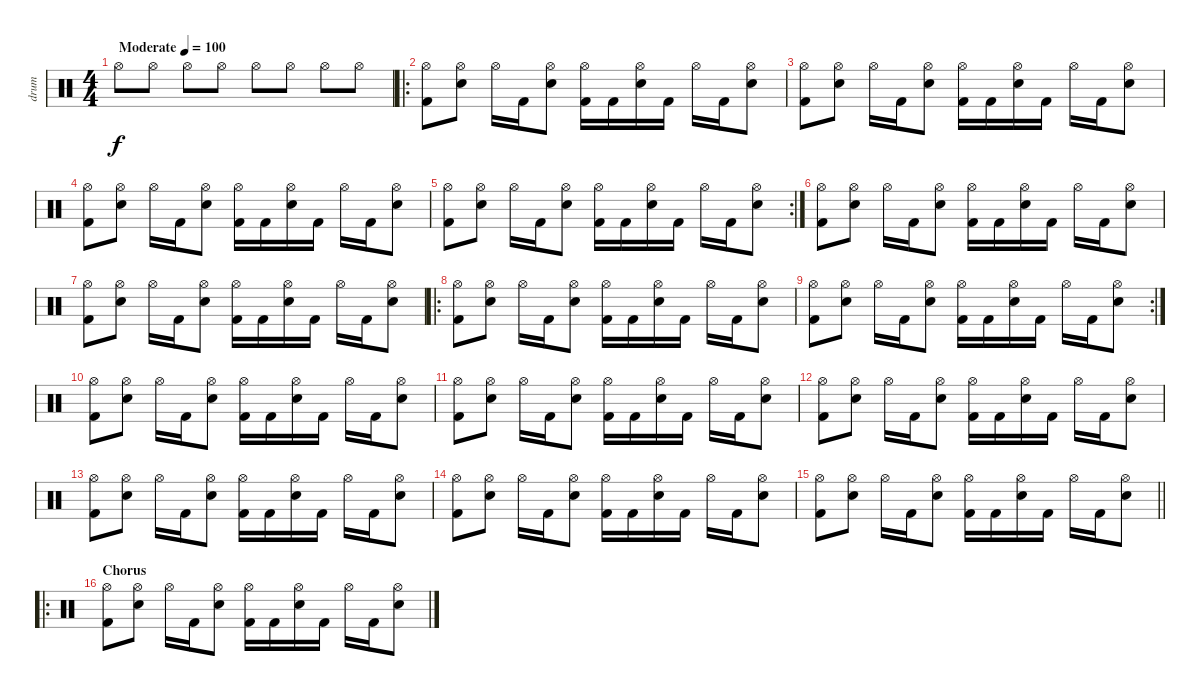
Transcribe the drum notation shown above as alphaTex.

\track ("drum" "drum") {instrument percussion}
\staff {score}
\articulation defaults
\ts (4 4)
\tempo (100 "Moderate")
\clef neutral
\ks c "Hi-Hat (open)".8{dy f} "Hi-Hat (open)".8 "Hi-Hat (open)".8 "Hi-Hat (open)".8 "Hi-Hat (open)".8 "Hi-Hat (open)".8 "Hi-Hat (open)".8 "Hi-Hat (open)".8
|
\ro
("Hi-Hat (open)" "Kick (hit) 2").8 ("Hi-Hat (open)" "Electric Snare (hit)").8 "Hi-Hat (open)".16 "Kick (hit) 2".16 ("Hi-Hat (open)" "Electric Snare (hit)").8 ("Hi-Hat (open)" "Kick (hit) 2").16 "Kick (hit) 2".16 ("Hi-Hat (open)" "Electric Snare (hit)").16 "Kick (hit) 2".16 "Hi-Hat (open)".16 "Kick (hit) 2".16 ("Hi-Hat (open)" "Electric Snare (hit)").8 |
("Hi-Hat (open)" "Kick (hit) 2").8 ("Hi-Hat (open)" "Electric Snare (hit)").8 "Hi-Hat (open)".16 "Kick (hit) 2".16 ("Hi-Hat (open)" "Electric Snare (hit)").8 ("Hi-Hat (open)" "Kick (hit) 2").16 "Kick (hit) 2".16 ("Hi-Hat (open)" "Electric Snare (hit)").16 "Kick (hit) 2".16 "Hi-Hat (open)".16 "Kick (hit) 2".16 ("Hi-Hat (open)" "Electric Snare (hit)").8 |
("Hi-Hat (open)" "Kick (hit) 2").8 ("Hi-Hat (open)" "Electric Snare (hit)").8 "Hi-Hat (open)".16 "Kick (hit) 2".16 ("Hi-Hat (open)" "Electric Snare (hit)").8 ("Hi-Hat (open)" "Kick (hit) 2").16 "Kick (hit) 2".16 ("Hi-Hat (open)" "Electric Snare (hit)").16 "Kick (hit) 2".16 "Hi-Hat (open)".16 "Kick (hit) 2".16 ("Hi-Hat (open)" "Electric Snare (hit)").8 |
\rc 2
("Hi-Hat (open)" "Kick (hit) 2").8 ("Hi-Hat (open)" "Electric Snare (hit)").8 "Hi-Hat (open)".16 "Kick (hit) 2".16 ("Hi-Hat (open)" "Electric Snare (hit)").8 ("Hi-Hat (open)" "Kick (hit) 2").16 "Kick (hit) 2".16 ("Hi-Hat (open)" "Electric Snare (hit)").16 "Kick (hit) 2".16 "Hi-Hat (open)".16 "Kick (hit) 2".16 ("Hi-Hat (open)" "Electric Snare (hit)").8 |
("Hi-Hat (open)" "Kick (hit) 2").8 ("Hi-Hat (open)" "Electric Snare (hit)").8 "Hi-Hat (open)".16 "Kick (hit) 2".16 ("Hi-Hat (open)" "Electric Snare (hit)").8 ("Hi-Hat (open)" "Kick (hit) 2").16 "Kick (hit) 2".16 ("Hi-Hat (open)" "Electric Snare (hit)").16 "Kick (hit) 2".16 "Hi-Hat (open)".16 "Kick (hit) 2".16 ("Hi-Hat (open)" "Electric Snare (hit)").8 |
("Hi-Hat (open)" "Kick (hit) 2").8 ("Hi-Hat (open)" "Electric Snare (hit)").8 "Hi-Hat (open)".16 "Kick (hit) 2".16 ("Hi-Hat (open)" "Electric Snare (hit)").8 ("Hi-Hat (open)" "Kick (hit) 2").16 "Kick (hit) 2".16 ("Hi-Hat (open)" "Electric Snare (hit)").16 "Kick (hit) 2".16 "Hi-Hat (open)".16 "Kick (hit) 2".16 ("Hi-Hat (open)" "Electric Snare (hit)").8 |
\ro
("Hi-Hat (open)" "Kick (hit) 2").8 ("Hi-Hat (open)" "Electric Snare (hit)").8 "Hi-Hat (open)".16 "Kick (hit) 2".16 ("Hi-Hat (open)" "Electric Snare (hit)").8 ("Hi-Hat (open)" "Kick (hit) 2").16 "Kick (hit) 2".16 ("Hi-Hat (open)" "Electric Snare (hit)").16 "Kick (hit) 2".16 "Hi-Hat (open)".16 "Kick (hit) 2".16 ("Hi-Hat (open)" "Electric Snare (hit)").8 |
\rc 2
("Hi-Hat (open)" "Kick (hit) 2").8 ("Hi-Hat (open)" "Electric Snare (hit)").8 "Hi-Hat (open)".16 "Kick (hit) 2".16 ("Hi-Hat (open)" "Electric Snare (hit)").8 ("Hi-Hat (open)" "Kick (hit) 2").16 "Kick (hit) 2".16 ("Hi-Hat (open)" "Electric Snare (hit)").16 "Kick (hit) 2".16 "Hi-Hat (open)".16 "Kick (hit) 2".16 ("Hi-Hat (open)" "Electric Snare (hit)").8 |
("Hi-Hat (open)" "Kick (hit) 2").8 ("Hi-Hat (open)" "Electric Snare (hit)").8 "Hi-Hat (open)".16 "Kick (hit) 2".16 ("Hi-Hat (open)" "Electric Snare (hit)").8 ("Hi-Hat (open)" "Kick (hit) 2").16 "Kick (hit) 2".16 ("Hi-Hat (open)" "Electric Snare (hit)").16 "Kick (hit) 2".16 "Hi-Hat (open)".16 "Kick (hit) 2".16 ("Hi-Hat (open)" "Electric Snare (hit)").8 |
("Hi-Hat (open)" "Kick (hit) 2").8 ("Hi-Hat (open)" "Electric Snare (hit)").8 "Hi-Hat (open)".16 "Kick (hit) 2".16 ("Hi-Hat (open)" "Electric Snare (hit)").8 ("Hi-Hat (open)" "Kick (hit) 2").16 "Kick (hit) 2".16 ("Hi-Hat (open)" "Electric Snare (hit)").16 "Kick (hit) 2".16 "Hi-Hat (open)".16 "Kick (hit) 2".16 ("Hi-Hat (open)" "Electric Snare (hit)").8 |
("Hi-Hat (open)" "Kick (hit) 2").8 ("Hi-Hat (open)" "Electric Snare (hit)").8 "Hi-Hat (open)".16 "Kick (hit) 2".16 ("Hi-Hat (open)" "Electric Snare (hit)").8 ("Hi-Hat (open)" "Kick (hit) 2").16 "Kick (hit) 2".16 ("Hi-Hat (open)" "Electric Snare (hit)").16 "Kick (hit) 2".16 "Hi-Hat (open)".16 "Kick (hit) 2".16 ("Hi-Hat (open)" "Electric Snare (hit)").8 |
("Hi-Hat (open)" "Kick (hit) 2").8 ("Hi-Hat (open)" "Electric Snare (hit)").8 "Hi-Hat (open)".16 "Kick (hit) 2".16 ("Hi-Hat (open)" "Electric Snare (hit)").8 ("Hi-Hat (open)" "Kick (hit) 2").16 "Kick (hit) 2".16 ("Hi-Hat (open)" "Electric Snare (hit)").16 "Kick (hit) 2".16 "Hi-Hat (open)".16 "Kick (hit) 2".16 ("Hi-Hat (open)" "Electric Snare (hit)").8 |
("Hi-Hat (open)" "Kick (hit) 2").8 ("Hi-Hat (open)" "Electric Snare (hit)").8 "Hi-Hat (open)".16 "Kick (hit) 2".16 ("Hi-Hat (open)" "Electric Snare (hit)").8 ("Hi-Hat (open)" "Kick (hit) 2").16 "Kick (hit) 2".16 ("Hi-Hat (open)" "Electric Snare (hit)").16 "Kick (hit) 2".16 "Hi-Hat (open)".16 "Kick (hit) 2".16 ("Hi-Hat (open)" "Electric Snare (hit)").8 |
\barLineRight lightlight
("Hi-Hat (open)" "Kick (hit) 2").8 ("Hi-Hat (open)" "Electric Snare (hit)").8 "Hi-Hat (open)".16 "Kick (hit) 2".16 ("Hi-Hat (open)" "Electric Snare (hit)").8 ("Hi-Hat (open)" "Kick (hit) 2").16 "Kick (hit) 2".16 ("Hi-Hat (open)" "Electric Snare (hit)").16 "Kick (hit) 2".16 "Hi-Hat (open)".16 "Kick (hit) 2".16 ("Hi-Hat (open)" "Electric Snare (hit)").8 |
\ro
\section ("" "Chorus")
("Hi-Hat (open)" "Kick (hit) 2").8 ("Hi-Hat (open)" "Electric Snare (hit)").8 "Hi-Hat (open)".16 "Kick (hit) 2".16 ("Hi-Hat (open)" "Electric Snare (hit)").8 ("Hi-Hat (open)" "Kick (hit) 2").16 "Kick (hit) 2".16 ("Hi-Hat (open)" "Electric Snare (hit)").16 "Kick (hit) 2".16 "Hi-Hat (open)".16 "Kick (hit) 2".16 ("Hi-Hat (open)" "Electric Snare (hit)").8
